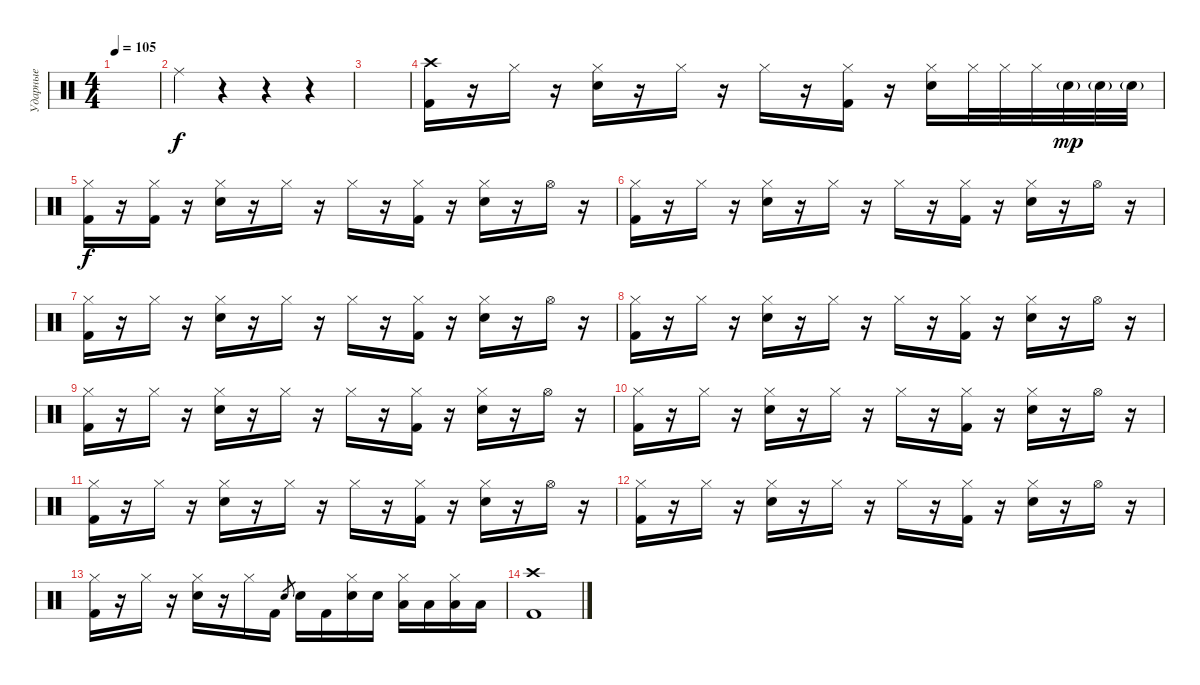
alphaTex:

\track ("Ударные" "Ударные") {instrument percussion}
\staff {score}
\articulation defaults
\ts (4 4)
\tempo 105
\clef neutral
\ks c
|
"Ride (middle)".4 r.4 r.4 r.4 |
|
("Crash high (hit)" "Kick (hit) 2").16 r.16 "Hi-Hat (closed)".16 r.16 ("Hi-Hat (closed)" "Electric Snare (hit)").16 r.16 "Hi-Hat (closed)".16 r.16 "Hi-Hat (closed)".16 r.16 ("Hi-Hat (closed)" "Kick (hit) 2").16 r.16 ("Hi-Hat (closed)" "Electric Snare (hit)").16 "Hi-Hat (closed)".32 "Hi-Hat (closed)".32 "Hi-Hat (closed)".32 "Electric Snare (hit)"{g}.32{dy mp} "Electric Snare (hit)"{g}.32 "Electric Snare (hit)"{g}.32 |
("Hi-Hat (closed)" "Kick (hit) 2").16{dy f} r.16 ("Hi-Hat (closed)" "Kick (hit) 2").16 r.16 ("Hi-Hat (closed)" "Electric Snare (hit)").16 r.16 "Hi-Hat (closed)".16 r.16 "Hi-Hat (closed)".16 r.16 ("Hi-Hat (closed)" "Kick (hit) 2").16 r.16 ("Hi-Hat (closed)" "Electric Snare (hit)").16 r.16 "Hi-Hat (open)".16 r.16 |
("Hi-Hat (closed)" "Kick (hit) 2").16 r.16 "Hi-Hat (closed)".16 r.16 ("Hi-Hat (closed)" "Electric Snare (hit)").16 r.16 "Hi-Hat (closed)".16 r.16 "Hi-Hat (closed)".16 r.16 ("Hi-Hat (closed)" "Kick (hit) 2").16 r.16 ("Hi-Hat (closed)" "Electric Snare (hit)").16 r.16 "Hi-Hat (open)".16 r.16 |
("Hi-Hat (closed)" "Kick (hit) 2").16 r.16 "Hi-Hat (closed)".16 r.16 ("Hi-Hat (closed)" "Electric Snare (hit)").16 r.16 "Hi-Hat (closed)".16 r.16 "Hi-Hat (closed)".16 r.16 ("Hi-Hat (closed)" "Kick (hit) 2").16 r.16 ("Hi-Hat (closed)" "Electric Snare (hit)").16 r.16 "Hi-Hat (open)".16 r.16 |
("Hi-Hat (closed)" "Kick (hit) 2").16 r.16 "Hi-Hat (closed)".16 r.16 ("Hi-Hat (closed)" "Electric Snare (hit)").16 r.16 "Hi-Hat (closed)".16 r.16 "Hi-Hat (closed)".16 r.16 ("Hi-Hat (closed)" "Kick (hit) 2").16 r.16 ("Hi-Hat (closed)" "Electric Snare (hit)").16 r.16 "Hi-Hat (open)".16 r.16 |
("Hi-Hat (closed)" "Kick (hit) 2").16 r.16 "Hi-Hat (closed)".16 r.16 ("Hi-Hat (closed)" "Electric Snare (hit)").16 r.16 "Hi-Hat (closed)".16 r.16 "Hi-Hat (closed)".16 r.16 ("Hi-Hat (closed)" "Kick (hit) 2").16 r.16 ("Hi-Hat (closed)" "Electric Snare (hit)").16 r.16 "Hi-Hat (open)".16 r.16 |
("Hi-Hat (closed)" "Kick (hit) 2").16 r.16 "Hi-Hat (closed)".16 r.16 ("Hi-Hat (closed)" "Electric Snare (hit)").16 r.16 "Hi-Hat (closed)".16 r.16 "Hi-Hat (closed)".16 r.16 ("Hi-Hat (closed)" "Kick (hit) 2").16 r.16 ("Hi-Hat (closed)" "Electric Snare (hit)").16 r.16 "Hi-Hat (open)".16 r.16 |
("Hi-Hat (closed)" "Kick (hit) 2").16 r.16 "Hi-Hat (closed)".16 r.16 ("Hi-Hat (closed)" "Electric Snare (hit)").16 r.16 "Hi-Hat (closed)".16 r.16 "Hi-Hat (closed)".16 r.16 ("Hi-Hat (closed)" "Kick (hit) 2").16 r.16 ("Hi-Hat (closed)" "Electric Snare (hit)").16 r.16 "Hi-Hat (open)".16 r.16 |
("Hi-Hat (closed)" "Kick (hit) 2").16 r.16 "Hi-Hat (closed)".16 r.16 ("Hi-Hat (closed)" "Electric Snare (hit)").16 r.16 "Hi-Hat (closed)".16 r.16 "Hi-Hat (closed)".16 r.16 ("Hi-Hat (closed)" "Kick (hit) 2").16 r.16 ("Hi-Hat (closed)" "Electric Snare (hit)").16 r.16 "Hi-Hat (open)".16 r.16 |
("Hi-Hat (closed)" "Kick (hit) 2").16 r.16 "Hi-Hat (closed)".16 r.16 ("Hi-Hat (closed)" "Electric Snare (hit)").16 r.16 "Hi-Hat (closed)".16 "Kick (hit) 2".16 "Electric Snare (hit)".8{gr} "Electric Snare (hit)".16 "Kick (hit) 2".16 ("Hi-Hat (closed)" "Electric Snare (hit)").16 "Electric Snare (hit)".16 ("Hi-Hat (closed)" "Low Tom (hit)").16 "Low Tom (hit)".16 ("Hi-Hat (closed)" "Low Floor Tom (hit)").16 "Low Floor Tom (hit)".16 |
("Crash high (hit)" "Kick (hit) 2").1
